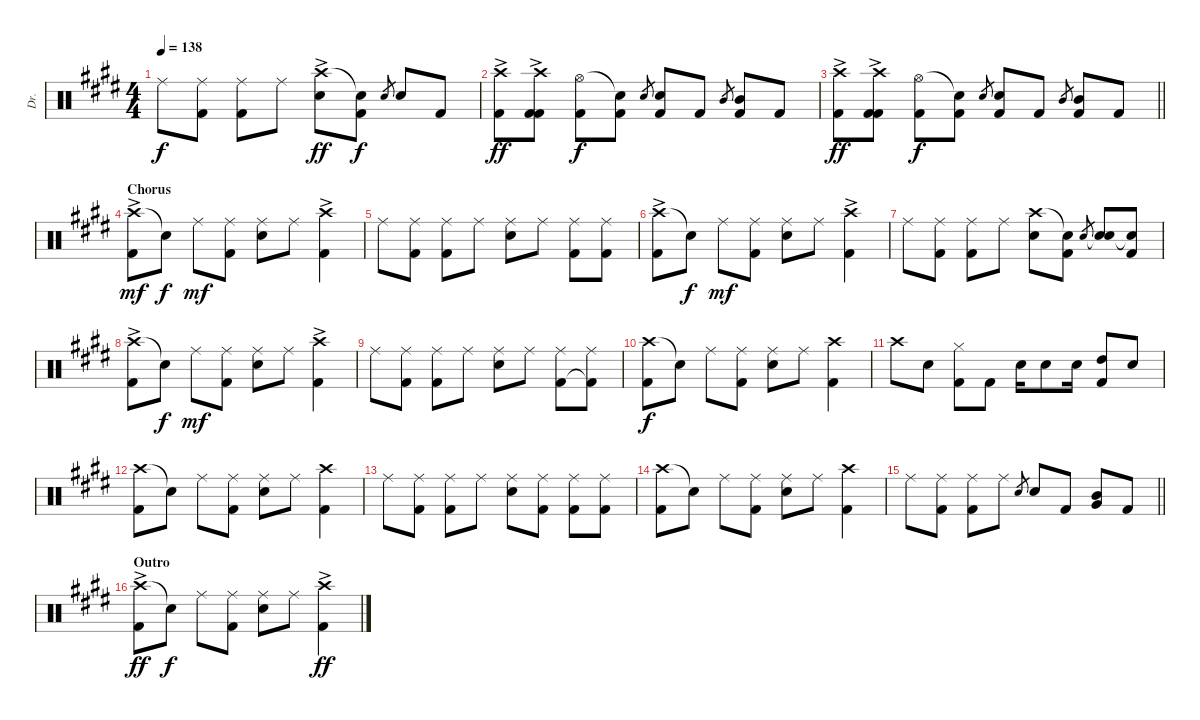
\track ("Dr." "Dr.") {instrument percussion}
\staff {score}
\articulation defaults
\ts (4 4)
\tempo 138
\clef neutral
\ks e "Ride (middle)".8{dy f}
("Ride (middle)" "Kick (hit) 2").8 ("Ride (middle)" "Kick (hit) 2").8 "Ride (middle)".8 ("Crash high (hit)"{ac} "Snare (hit) 2").8{dy ff} ("Snare (hit)"{t} "Kick (hit) 2").8{dy f} "Snare (hit) 2".8{gr} "Snare (hit) 2".8 "Kick (hit) 2".8 |
("Crash high (hit)"{ac} "Kick (hit) 2").8{dy ff} ("Crash high (hit)"{ac} "Kick (hit) 2" "Kick (hit) 2").8 ("Hi-Hat (open)" "Kick (hit) 2").8{dy f} ("Snare (hit)"{t} "Kick (hit) 2").8 "Snare (hit) 2".8{gr} ("Snare (hit) 2" "Kick (hit) 2").8 "Kick (hit) 2".8 "Mid Tom (hit)".8{gr} ("Mid Tom (hit)" "Kick (hit) 2").8 "Kick (hit) 2".8 |
\barLineRight lightlight
("Crash high (hit)"{ac} "Kick (hit) 2").8{dy ff} ("Crash high (hit)"{ac} "Kick (hit) 2" "Kick (hit) 2").8 ("Hi-Hat (open)" "Kick (hit) 2").8{dy f} ("Snare (hit)"{t} "Kick (hit) 2").8 "Snare (hit) 2".8{gr} ("Snare (hit) 2" "Kick (hit) 2").8 "Kick (hit) 2".8 "Mid Tom (hit)".8{gr} ("Mid Tom (hit)" "Kick (hit) 2").8 "Kick (hit) 2".8 |
\section ("" "Chorus")
("Crash high (hit)"{ac} "Kick (hit) 2").8{dy mf} "Snare (hit)"{t}.8{dy f} "Ride (middle)".8{dy mf} ("Ride (middle)" "Kick (hit) 2").8 ("Ride (middle)" "Snare (hit) 2").8 "Ride (middle)".8 ("Crash high (hit)"{ac} "Kick (hit) 2").4 |
"Ride (middle)".8 ("Ride (middle)" "Kick (hit) 2").8 ("Ride (middle)" "Kick (hit) 2").8 "Ride (middle)".8 ("Ride (middle)" "Snare (hit) 2").8 "Ride (middle)".8 ("Ride (middle)" "Kick (hit) 2").8 ("Ride (middle)" "Kick (hit) 2").8 |
("Crash high (hit)"{ac} "Kick (hit) 2").8 "Snare (hit)"{t}.8{dy f} "Ride (middle)".8{dy mf} ("Ride (middle)" "Kick (hit) 2").8 ("Ride (middle)" "Snare (hit) 2").8 "Ride (middle)".8 ("Crash high (hit)"{ac} "Kick (hit) 2").4 |
"Ride (middle)".8 ("Ride (middle)" "Kick (hit) 2").8 ("Ride (middle)" "Kick (hit) 2").8 "Ride (middle)".8 ("Crash high (hit)" "Snare (hit) 2").8 ("Snare (hit)"{t} "Kick (hit) 2").8 "Snare (hit) 2".8{gr} ("Snare (hit)"{t} "Snare (hit) 2").8 ("Snare (hit)"{t} "Kick (hit) 2").8 |
("Crash high (hit)"{ac} "Kick (hit) 2").8 "Snare (hit)"{t}.8{dy f} "Ride (middle)".8{dy mf} ("Ride (middle)" "Kick (hit) 2").8 ("Ride (middle)" "Snare (hit) 2").8 "Ride (middle)".8 ("Crash high (hit)"{ac} "Kick (hit) 2").4 |
"Ride (middle)".8 ("Ride (middle)" "Kick (hit) 2").8 ("Ride (middle)" "Kick (hit) 2").8 "Ride (middle)".8 ("Ride (middle)" "Snare (hit) 2").8 "Ride (middle)".8 ("Ride (middle)" "Kick (hit) 2").8 ("Ride (middle)" "Kick (hit) 2"{t}).8 |
("Crash high (hit)" "Kick (hit) 2").8{dy f} "Snare (hit)"{t}.8 "Ride (middle)".8 ("Ride (middle)" "Kick (hit) 2").8 ("Ride (middle)" "Snare (hit) 2").8 "Ride (middle)".8 ("Crash high (hit)" "Kick (hit) 2").4 |
"Crash high (hit)".8 "Snare (hit) 2".8 ("Hi-Hat (closed)" "Kick (hit) 2").8 "Kick (hit) 2".8 "Snare (hit) 2".16 "Snare (hit) 2".8 "Snare (hit) 2".16 ("High Tom (hit)" "Kick (hit) 2").8 "Snare (hit) 2".8 |
("Crash high (hit)" "Kick (hit) 2").8 "Snare (hit)"{t}.8 "Ride (middle)".8 ("Ride (middle)" "Kick (hit) 2").8 ("Ride (middle)" "Snare (hit) 2").8 "Ride (middle)".8 ("Crash high (hit)" "Kick (hit) 2").4 |
"Ride (middle)".8 ("Ride (middle)" "Kick (hit) 2").8 ("Ride (middle)" "Kick (hit) 2").8 "Ride (middle)".8 ("Ride (middle)" "Snare (hit) 2").8 ("Ride (middle)" "Kick (hit) 2").8 ("Ride (middle)" "Kick (hit) 2").8 ("Ride (middle)" "Kick (hit) 2").8 |
("Crash high (hit)" "Kick (hit) 2").8 "Snare (hit)"{t}.8 "Ride (middle)".8 ("Ride (middle)" "Kick (hit) 2").8 ("Ride (middle)" "Snare (hit) 2").8 "Ride (middle)".8 ("Crash high (hit)" "Kick (hit) 2").4 |
\barLineRight lightlight "Ride (middle)".8
("Ride (middle)" "Kick (hit) 2").8 ("Ride (middle)" "Kick (hit) 2").8 "Ride (middle)".8 "Snare (hit) 2".8{gr} "Snare (hit) 2".8 "Kick (hit) 2".8 ("Mid Tom (hit)" "Very Low Tom (hit)").8 "Kick (hit) 2".8 |
\section ("" "Outro")
("Crash high (hit)"{ac} "Kick (hit) 2").8{dy ff} "Snare (hit)"{t}.8{dy f} "Ride (middle)".8 ("Ride (middle)" "Kick (hit) 2").8 ("Ride (middle)" "Snare (hit) 2").8 "Ride (middle)".8 ("Crash high (hit)"{ac} "Kick (hit) 2").4{dy ff}
